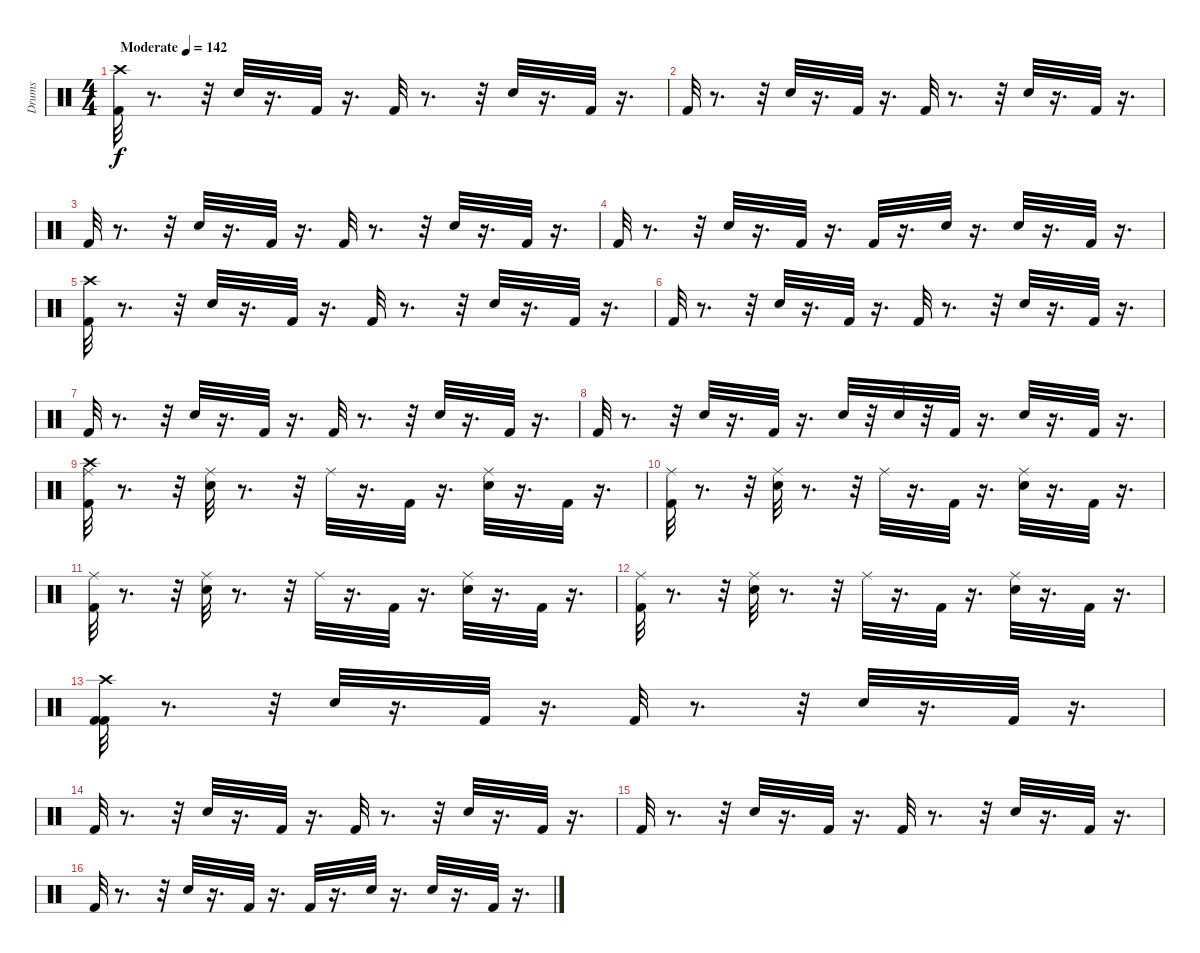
\track ("Drums" "Drums") {instrument percussion}
\staff {score}
\articulation defaults
\ts (4 4)
\tempo (142 "Moderate")
\clef neutral
\ks c
("Kick (hit) 2" "Crash high (hit)").32{dy f} r.8{d} r.32 "Snare (hit) 2".32 r.16{d} "Kick (hit) 2".32 r.16{d} "Kick (hit) 2".32 r.8{d} r.32 "Snare (hit) 2".32 r.16{d} "Kick (hit) 2".32 r.16{d} |
"Kick (hit) 2".32 r.8{d} r.32 "Snare (hit) 2".32 r.16{d} "Kick (hit) 2".32 r.16{d} "Kick (hit) 2".32 r.8{d} r.32 "Snare (hit) 2".32 r.16{d} "Kick (hit) 2".32 r.16{d} |
"Kick (hit) 2".32 r.8{d} r.32 "Snare (hit) 2".32 r.16{d} "Kick (hit) 2".32 r.16{d} "Kick (hit) 2".32 r.8{d} r.32 "Snare (hit) 2".32 r.16{d} "Kick (hit) 2".32 r.16{d} |
"Kick (hit) 2".32 r.8{d} r.32 "Snare (hit) 2".32 r.16{d} "Kick (hit) 2".32 r.16{d} "Kick (hit) 2".32 r.16{d} "Snare (hit) 2".32 r.16{d} "Snare (hit) 2".32 r.16{d} "Kick (hit) 2".32 r.16{d} |
("Crash high (hit)" "Kick (hit) 2").32 r.8{d} r.32 "Snare (hit) 2".32 r.16{d} "Kick (hit) 2".32 r.16{d} "Kick (hit) 2".32 r.8{d} r.32 "Snare (hit) 2".32 r.16{d} "Kick (hit) 2".32 r.16{d} |
"Kick (hit) 2".32 r.8{d} r.32 "Snare (hit) 2".32 r.16{d} "Kick (hit) 2".32 r.16{d} "Kick (hit) 2".32 r.8{d} r.32 "Snare (hit) 2".32 r.16{d} "Kick (hit) 2".32 r.16{d} |
"Kick (hit) 2".32 r.8{d} r.32 "Snare (hit) 2".32 r.16{d} "Kick (hit) 2".32 r.16{d} "Kick (hit) 2".32 r.8{d} r.32 "Snare (hit) 2".32 r.16{d} "Kick (hit) 2".32 r.16{d} |
"Kick (hit) 2".32 r.8{d} r.32 "Snare (hit) 2".32 r.16{d} "Kick (hit) 2".32 r.16{d} "Snare (hit) 2".32 r.32 "Snare (hit) 2".32 r.32 "Kick (hit) 2".32 r.16{d} "Snare (hit) 2".32 r.16{d} "Kick (hit) 2".32 r.16{d} |
("Ride (middle)" "Kick (hit) 2" "Crash high (hit)").32 r.8{d} r.32 ("Ride (middle)" "Snare (hit) 2").32{volume 16 balance 8} r.8{d} r.32 "Ride (middle)".32 r.16{d} "Kick (hit) 2".32 r.16{d} ("Ride (middle)" "Snare (hit) 2").32 r.16{d} "Kick (hit) 2".32 r.16{d} |
("Ride (middle)" "Kick (hit) 2").32 r.8{d} r.32 ("Ride (middle)" "Snare (hit) 2").32 r.8{d} r.32 "Ride (middle)".32 r.16{d} "Kick (hit) 2".32 r.16{d} ("Ride (middle)" "Snare (hit) 2").32 r.16{d} "Kick (hit) 2".32 r.16{d} |
("Ride (middle)" "Kick (hit) 2").32 r.8{d} r.32 ("Ride (middle)" "Snare (hit) 2").32 r.8{d} r.32 "Ride (middle)".32 r.16{d} "Kick (hit) 2".32 r.16{d} ("Ride (middle)" "Snare (hit) 2").32 r.16{d} "Kick (hit) 2".32 r.16{d} |
("Ride (middle)" "Kick (hit) 2").32 r.8{d} r.32 ("Ride (middle)" "Snare (hit) 2").32 r.8{d} r.32 "Ride (middle)".32 r.16{d} "Kick (hit) 2".32 r.16{d} ("Ride (middle)" "Snare (hit) 2").32 r.16{d} "Kick (hit) 2".32 r.16{d} |
("Kick (hit) 2" "Crash high (hit)" "Kick (hit) 2").32 r.8{d} r.32 "Snare (hit) 2".32 r.16{d} "Kick (hit) 2".32 r.16{d} "Kick (hit) 2".32 r.8{d} r.32 "Snare (hit) 2".32 r.16{d} "Kick (hit) 2".32 r.16{d} |
"Kick (hit) 2".32 r.8{d} r.32 "Snare (hit) 2".32 r.16{d} "Kick (hit) 2".32 r.16{d} "Kick (hit) 2".32 r.8{d} r.32 "Snare (hit) 2".32 r.16{d} "Kick (hit) 2".32 r.16{d} |
"Kick (hit) 2".32 r.8{d} r.32 "Snare (hit) 2".32 r.16{d} "Kick (hit) 2".32 r.16{d} "Kick (hit) 2".32 r.8{d} r.32 "Snare (hit) 2".32 r.16{d} "Kick (hit) 2".32 r.16{d} |
"Kick (hit) 2".32 r.8{d} r.32 "Snare (hit) 2".32 r.16{d} "Kick (hit) 2".32 r.16{d} "Kick (hit) 2".32 r.16{d} "Snare (hit) 2".32 r.16{d} "Snare (hit) 2".32 r.16{d} "Kick (hit) 2".32 r.16{d}
